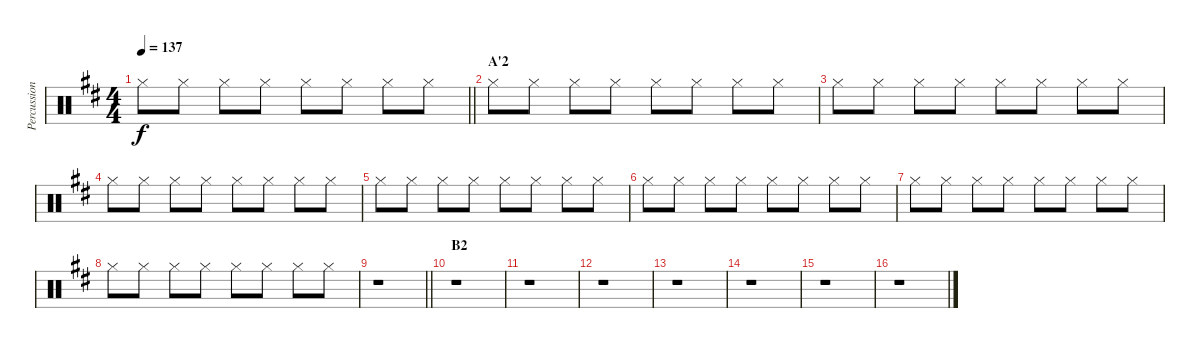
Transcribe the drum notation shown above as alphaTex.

\track ("Percussion" "Percussion") {instrument percussion}
\staff {score}
\articulation defaults
\ts (4 4)
\tempo 137
\clef neutral
\barLineRight lightlight
\ks d "Hi-Hat (closed)".8{dy f} "Hi-Hat (closed)".8 "Hi-Hat (closed)".8 "Hi-Hat (closed)".8 "Hi-Hat (closed)".8 "Hi-Hat (closed)".8 "Hi-Hat (closed)".8 "Hi-Hat (closed)".8
|
\section ("" "A'2")
"Hi-Hat (closed)".8 "Hi-Hat (closed)".8 "Hi-Hat (closed)".8 "Hi-Hat (closed)".8 "Hi-Hat (closed)".8 "Hi-Hat (closed)".8 "Hi-Hat (closed)".8 "Hi-Hat (closed)".8 |
"Hi-Hat (closed)".8 "Hi-Hat (closed)".8 "Hi-Hat (closed)".8 "Hi-Hat (closed)".8 "Hi-Hat (closed)".8 "Hi-Hat (closed)".8 "Hi-Hat (closed)".8 "Hi-Hat (closed)".8 |
"Hi-Hat (closed)".8 "Hi-Hat (closed)".8 "Hi-Hat (closed)".8 "Hi-Hat (closed)".8 "Hi-Hat (closed)".8 "Hi-Hat (closed)".8 "Hi-Hat (closed)".8 "Hi-Hat (closed)".8 |
"Hi-Hat (closed)".8 "Hi-Hat (closed)".8 "Hi-Hat (closed)".8 "Hi-Hat (closed)".8 "Hi-Hat (closed)".8 "Hi-Hat (closed)".8 "Hi-Hat (closed)".8 "Hi-Hat (closed)".8 |
"Hi-Hat (closed)".8 "Hi-Hat (closed)".8 "Hi-Hat (closed)".8 "Hi-Hat (closed)".8 "Hi-Hat (closed)".8 "Hi-Hat (closed)".8 "Hi-Hat (closed)".8 "Hi-Hat (closed)".8 |
"Hi-Hat (closed)".8 "Hi-Hat (closed)".8 "Hi-Hat (closed)".8 "Hi-Hat (closed)".8 "Hi-Hat (closed)".8 "Hi-Hat (closed)".8 "Hi-Hat (closed)".8 "Hi-Hat (closed)".8 |
"Hi-Hat (closed)".8 "Hi-Hat (closed)".8 "Hi-Hat (closed)".8 "Hi-Hat (closed)".8 "Hi-Hat (closed)".8 "Hi-Hat (closed)".8 "Hi-Hat (closed)".8 "Hi-Hat (closed)".8 |
\barLineRight lightlight
r.1 |
\section ("" "B2")
r.1 |
r.1 |
r.1 |
r.1 |
r.1 |
r.1 |
r.1
